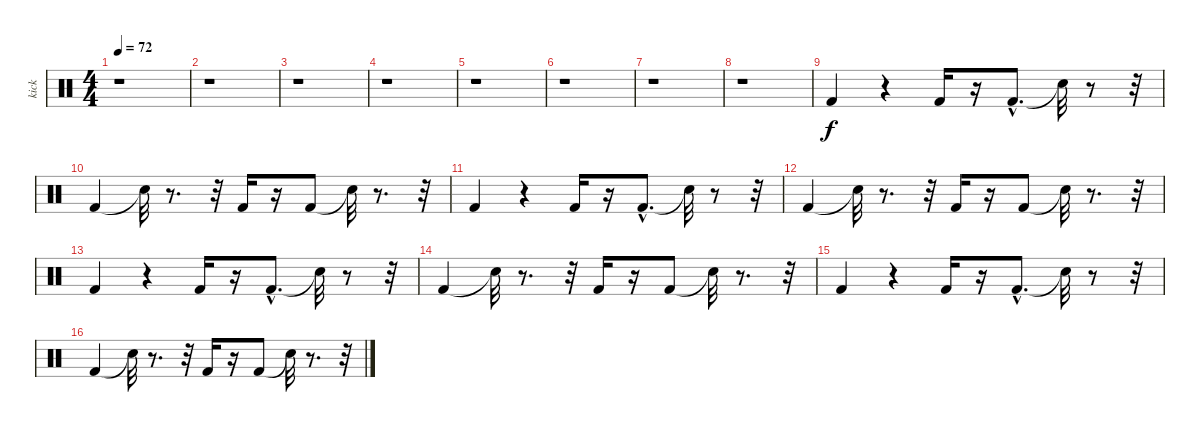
\track ("kick" "kick") {instrument percussion}
\staff {score}
\articulation defaults
\ts (4 4)
\tempo 72
\clef neutral
\ks c
r.1{dy f} |
r.1 |
r.1 |
r.1 |
r.1 |
r.1 |
r.1 |
r.1 |
"Kick (hit) 2".4 r.4 "Kick (hit) 2".16 r.16 "Kick (hit) 2"{hac}.8{d} "Snare (hit)"{t}.32 r.8 r.32 |
"Kick (hit) 2".4 "Snare (hit)"{t}.32 r.8{d} r.32 "Kick (hit) 2".16 r.16 "Kick (hit) 2".8 "Snare (hit)"{t}.32 r.8{d} r.32 |
"Kick (hit) 2".4 r.4 "Kick (hit) 2".16 r.16 "Kick (hit) 2"{hac}.8{d} "Snare (hit)"{t}.32 r.8 r.32 |
"Kick (hit) 2".4 "Snare (hit)"{t}.32 r.8{d} r.32 "Kick (hit) 2".16 r.16 "Kick (hit) 2".8 "Snare (hit)"{t}.32 r.8{d} r.32 |
"Kick (hit) 2".4 r.4 "Kick (hit) 2".16 r.16 "Kick (hit) 2"{hac}.8{d} "Snare (hit)"{t}.32 r.8 r.32 |
"Kick (hit) 2".4 "Snare (hit)"{t}.32 r.8{d} r.32 "Kick (hit) 2".16 r.16 "Kick (hit) 2".8 "Snare (hit)"{t}.32 r.8{d} r.32 |
"Kick (hit) 2".4 r.4 "Kick (hit) 2".16 r.16 "Kick (hit) 2"{hac}.8{d} "Snare (hit)"{t}.32 r.8 r.32 |
"Kick (hit) 2".4 "Snare (hit)"{t}.32 r.8{d} r.32 "Kick (hit) 2".16 r.16 "Kick (hit) 2".8 "Snare (hit)"{t}.32 r.8{d} r.32
